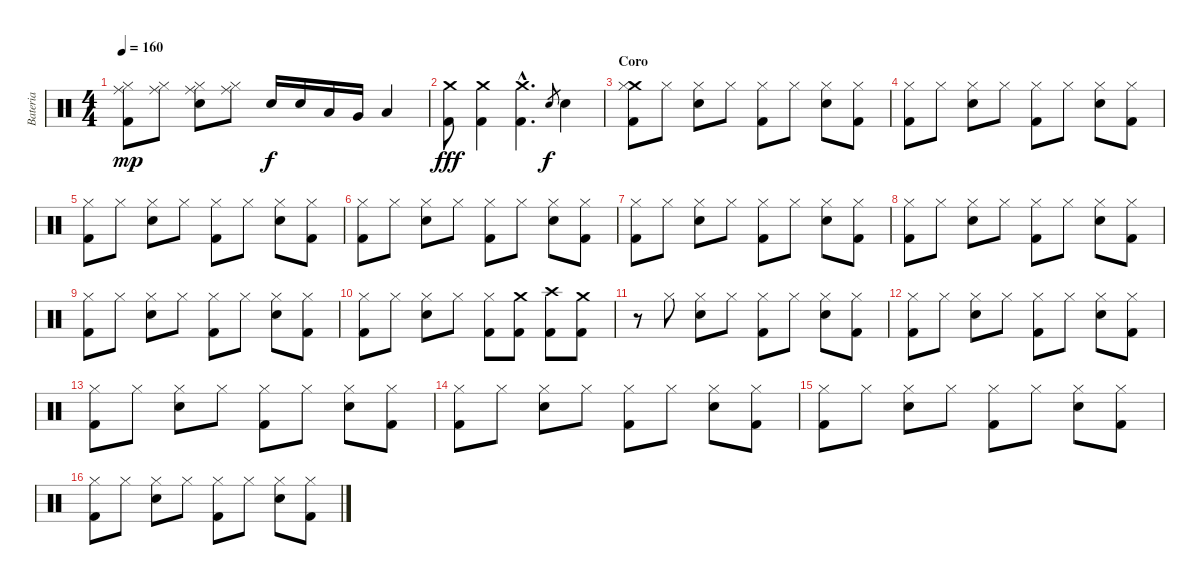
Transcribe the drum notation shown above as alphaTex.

\track ("Bateria" "Bateria") {instrument percussion}
\staff {score}
\articulation defaults
\ts (4 4)
\tempo 160
\clef neutral
\ks c
("Hi-Hat (closed)" "Kick (hit) 2" "Ride (middle)").8{dy mp} ("Hi-Hat (closed)" "Ride (middle)").8 ("Hi-Hat (closed)" "Electric Snare (hit)" "Ride (middle)").8 ("Hi-Hat (closed)" "Ride (middle)").8 "Electric Snare (hit)".16{dy f} "Electric Snare (hit)".16 "Low Tom (hit)".16 "Very Low Tom (hit)".16 "Low Tom (hit)".4 |
("Crash medium (hit)" "Kick (hit) 2").8{dy fff} ("Crash medium (hit)" "Kick (hit) 2").4 ("Crash medium (hit)"{hac} "Kick (hit) 2"{hac}).4{d} "Electric Snare (hit)".8{gr dy f} "Electric Snare (hit)".4 |
\section ("" "Coro")
("Crash medium (hit)" "Hi-Hat (closed)" "Kick (hit) 2").8 "Hi-Hat (closed)".8 ("Hi-Hat (closed)" "Electric Snare (hit)").8 "Hi-Hat (closed)".8 ("Hi-Hat (closed)" "Kick (hit) 2").8 "Hi-Hat (closed)".8 ("Hi-Hat (closed)" "Electric Snare (hit)").8 ("Hi-Hat (closed)" "Kick (hit) 2").8 |
("Hi-Hat (closed)" "Kick (hit) 2").8 "Hi-Hat (closed)".8 ("Hi-Hat (closed)" "Electric Snare (hit)").8 "Hi-Hat (closed)".8 ("Hi-Hat (closed)" "Kick (hit) 2").8 "Hi-Hat (closed)".8 ("Hi-Hat (closed)" "Electric Snare (hit)").8 ("Hi-Hat (closed)" "Kick (hit) 2").8 |
("Hi-Hat (closed)" "Kick (hit) 2").8 "Hi-Hat (closed)".8 ("Hi-Hat (closed)" "Electric Snare (hit)").8 "Hi-Hat (closed)".8 ("Hi-Hat (closed)" "Kick (hit) 2").8 "Hi-Hat (closed)".8 ("Hi-Hat (closed)" "Electric Snare (hit)").8 ("Hi-Hat (closed)" "Kick (hit) 2").8 |
("Hi-Hat (closed)" "Kick (hit) 2").8 "Hi-Hat (closed)".8 ("Hi-Hat (closed)" "Electric Snare (hit)").8 "Hi-Hat (closed)".8 ("Hi-Hat (closed)" "Kick (hit) 2").8 "Hi-Hat (closed)".8 ("Hi-Hat (closed)" "Electric Snare (hit)").8 ("Hi-Hat (closed)" "Kick (hit) 2").8 |
("Hi-Hat (closed)" "Kick (hit) 2").8 "Hi-Hat (closed)".8 ("Hi-Hat (closed)" "Electric Snare (hit)").8 "Hi-Hat (closed)".8 ("Hi-Hat (closed)" "Kick (hit) 2").8 "Hi-Hat (closed)".8 ("Hi-Hat (closed)" "Electric Snare (hit)").8 ("Hi-Hat (closed)" "Kick (hit) 2").8 |
("Hi-Hat (closed)" "Kick (hit) 2").8 "Hi-Hat (closed)".8 ("Hi-Hat (closed)" "Electric Snare (hit)").8 "Hi-Hat (closed)".8 ("Hi-Hat (closed)" "Kick (hit) 2").8 "Hi-Hat (closed)".8 ("Hi-Hat (closed)" "Electric Snare (hit)").8 ("Hi-Hat (closed)" "Kick (hit) 2").8 |
("Hi-Hat (closed)" "Kick (hit) 2").8 "Hi-Hat (closed)".8 ("Hi-Hat (closed)" "Electric Snare (hit)").8 "Hi-Hat (closed)".8 ("Hi-Hat (closed)" "Kick (hit) 2").8 "Hi-Hat (closed)".8 ("Hi-Hat (closed)" "Electric Snare (hit)").8 ("Hi-Hat (closed)" "Kick (hit) 2").8 |
("Hi-Hat (closed)" "Kick (hit) 2").8 "Hi-Hat (closed)".8 ("Hi-Hat (closed)" "Electric Snare (hit)").8 "Hi-Hat (closed)".8 ("Hi-Hat (closed)" "Kick (hit) 2").8 ("Crash medium (hit)" "Kick (hit) 2").8 ("Crash high (hit)" "Kick (hit) 2").8 ("Crash medium (hit)" "Kick (hit) 2").8 |
r.8 "Hi-Hat (closed)".8 ("Hi-Hat (closed)" "Electric Snare (hit)").8 "Hi-Hat (closed)".8 ("Hi-Hat (closed)" "Kick (hit) 2").8 "Hi-Hat (closed)".8 ("Hi-Hat (closed)" "Electric Snare (hit)").8 ("Hi-Hat (closed)" "Kick (hit) 2").8 |
("Hi-Hat (closed)" "Kick (hit) 2").8 "Hi-Hat (closed)".8 ("Hi-Hat (closed)" "Electric Snare (hit)").8 "Hi-Hat (closed)".8 ("Hi-Hat (closed)" "Kick (hit) 2").8 "Hi-Hat (closed)".8 ("Hi-Hat (closed)" "Electric Snare (hit)").8 ("Hi-Hat (closed)" "Kick (hit) 2").8 |
("Hi-Hat (closed)" "Kick (hit) 2").8 "Hi-Hat (closed)".8 ("Hi-Hat (closed)" "Electric Snare (hit)").8 "Hi-Hat (closed)".8 ("Hi-Hat (closed)" "Kick (hit) 2").8 "Hi-Hat (closed)".8 ("Hi-Hat (closed)" "Electric Snare (hit)").8 ("Hi-Hat (closed)" "Kick (hit) 2").8 |
("Hi-Hat (closed)" "Kick (hit) 2").8 "Hi-Hat (closed)".8 ("Hi-Hat (closed)" "Electric Snare (hit)").8 "Hi-Hat (closed)".8 ("Hi-Hat (closed)" "Kick (hit) 2").8 "Hi-Hat (closed)".8 ("Hi-Hat (closed)" "Electric Snare (hit)").8 ("Hi-Hat (closed)" "Kick (hit) 2").8 |
("Hi-Hat (closed)" "Kick (hit) 2").8 "Hi-Hat (closed)".8 ("Hi-Hat (closed)" "Electric Snare (hit)").8 "Hi-Hat (closed)".8 ("Hi-Hat (closed)" "Kick (hit) 2").8 "Hi-Hat (closed)".8 ("Hi-Hat (closed)" "Electric Snare (hit)").8 ("Hi-Hat (closed)" "Kick (hit) 2").8 |
("Hi-Hat (closed)" "Kick (hit) 2").8 "Hi-Hat (closed)".8 ("Hi-Hat (closed)" "Electric Snare (hit)").8 "Hi-Hat (closed)".8 ("Hi-Hat (closed)" "Kick (hit) 2").8 "Hi-Hat (closed)".8 ("Hi-Hat (closed)" "Electric Snare (hit)").8 ("Hi-Hat (closed)" "Kick (hit) 2").8
